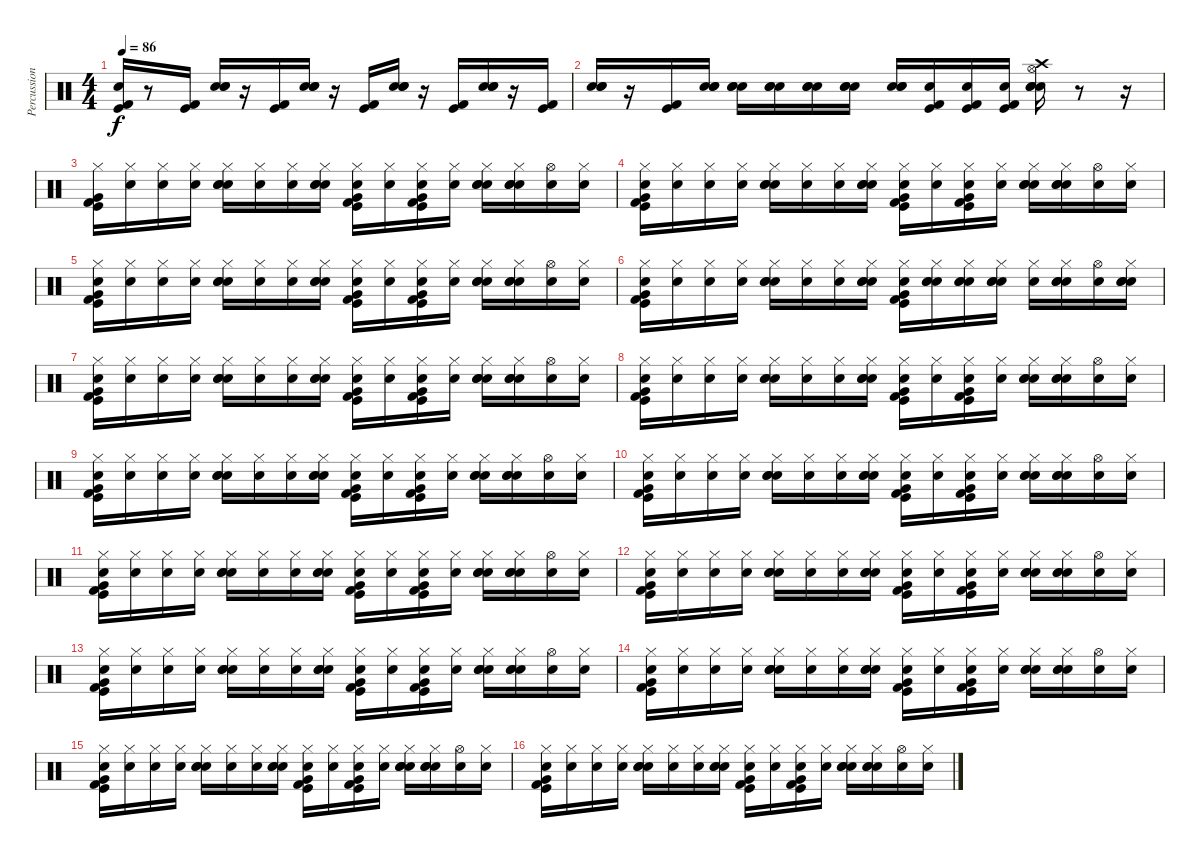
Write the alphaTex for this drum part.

\track ("Percussions (from MIDI)" "Percussion") {instrument percussion}
\staff {score}
\articulation defaults
\ts (4 4)
\tempo 86
\clef neutral
\ks c
("Snare (hit)" "Kick (hit) 2" "Kick (hit)").16{dy f} r.8 ("Kick (hit) 2" "Kick (hit)").16 ("Snare (hit)" "Snare (hit) 2" "Electric Snare (hit)").16 r.16 ("Kick (hit)" "Kick (hit) 2").16 ("Snare (hit)" "Electric Snare (hit)" "Snare (hit) 2").16 r.16 ("Kick (hit) 2" "Kick (hit)").16 ("Snare (hit)" "Snare (hit) 2" "Electric Snare (hit)").16 r.16 ("Kick (hit)" "Kick (hit) 2").16 ("Snare (hit)" "Electric Snare (hit)" "Snare (hit) 2").16 r.16 ("Kick (hit) 2" "Kick (hit)").16 |
("Snare (hit)" "Electric Snare (hit)" "Snare (hit) 2").16 r.16 ("Kick (hit) 2" "Kick (hit)").16 ("Snare (hit)" "Electric Snare (hit)" "Snare (hit) 2").16 ("Snare (hit)" "Electric Snare (hit)" "Snare (hit) 2").16 ("Snare (hit)" "Electric Snare (hit)" "Snare (hit) 2").16 ("Snare (hit)" "Electric Snare (hit)" "Snare (hit) 2").16 ("Snare (hit)" "Electric Snare (hit)" "Snare (hit) 2").16 ("Snare (hit)" "Electric Snare (hit)" "Snare (hit) 2").16 ("Snare (hit)" "Kick (hit) 2" "Kick (hit)").16 ("Snare (hit)" "Kick (hit) 2" "Kick (hit)").16 ("Snare (hit)" "Kick (hit) 2" "Kick (hit)").16 ("Snare (hit)" "Crash high (hit)" "Hi-Hat (open)" "Electric Snare (hit)" "Snare (hit) 2").16 r.8 r.16 |
("Kick (hit)" "Kick (hit) 2" "Very Low Tom (hit)" "Hi-Hat (closed)").16 ("Snare (hit)" "Hi-Hat (closed)").16 ("Snare (hit)" "Hi-Hat (closed)").16 ("Snare (hit)" "Hi-Hat (closed)").16 ("Snare (hit)" "Hi-Hat (closed)" "Electric Snare (hit)" "Snare (hit) 2").16 ("Snare (hit)" "Hi-Hat (closed)").16 ("Snare (hit)" "Hi-Hat (closed)").16 ("Snare (hit)" "Hi-Hat (closed)" "Electric Snare (hit)" "Snare (hit) 2").16 ("Snare (hit)" "Hi-Hat (closed)" "Very Low Tom (hit)" "Kick (hit) 2" "Kick (hit)").16 ("Snare (hit)" "Hi-Hat (closed)").16 ("Snare (hit)" "Hi-Hat (closed)" "Very Low Tom (hit)" "Kick (hit) 2" "Kick (hit)").16 ("Snare (hit)" "Hi-Hat (closed)").16 ("Snare (hit)" "Hi-Hat (closed)" "Electric Snare (hit)" "Snare (hit) 2").16 ("Snare (hit)" "Hi-Hat (closed)" "Snare (hit) 2" "Electric Snare (hit)").16 ("Snare (hit)" "Hi-Hat (open)").16 ("Snare (hit)" "Hi-Hat (closed)").16 |
("Snare (hit)" "Hi-Hat (closed)" "Very Low Tom (hit)" "Kick (hit) 2" "Kick (hit)").16 ("Snare (hit)" "Hi-Hat (closed)").16 ("Snare (hit)" "Hi-Hat (closed)").16 ("Snare (hit)" "Hi-Hat (closed)").16 ("Snare (hit)" "Hi-Hat (closed)" "Electric Snare (hit)" "Snare (hit) 2").16 ("Snare (hit)" "Hi-Hat (closed)").16 ("Snare (hit)" "Hi-Hat (closed)").16 ("Snare (hit)" "Hi-Hat (closed)" "Electric Snare (hit)" "Snare (hit) 2").16 ("Snare (hit)" "Hi-Hat (closed)" "Very Low Tom (hit)" "Kick (hit) 2" "Kick (hit)").16 ("Snare (hit)" "Hi-Hat (closed)").16 ("Snare (hit)" "Hi-Hat (closed)" "Very Low Tom (hit)" "Kick (hit) 2" "Kick (hit)").16 ("Snare (hit)" "Hi-Hat (closed)").16 ("Snare (hit)" "Hi-Hat (closed)" "Electric Snare (hit)" "Snare (hit) 2").16 ("Snare (hit)" "Hi-Hat (closed)" "Snare (hit) 2" "Electric Snare (hit)").16 ("Snare (hit)" "Hi-Hat (open)").16 ("Snare (hit)" "Hi-Hat (closed)").16 |
("Snare (hit)" "Hi-Hat (closed)" "Very Low Tom (hit)" "Kick (hit) 2" "Kick (hit)").16 ("Snare (hit)" "Hi-Hat (closed)").16 ("Snare (hit)" "Hi-Hat (closed)").16 ("Snare (hit)" "Hi-Hat (closed)").16 ("Snare (hit)" "Hi-Hat (closed)" "Electric Snare (hit)" "Snare (hit) 2").16 ("Snare (hit)" "Hi-Hat (closed)").16 ("Snare (hit)" "Hi-Hat (closed)").16 ("Snare (hit)" "Hi-Hat (closed)" "Electric Snare (hit)" "Snare (hit) 2").16 ("Snare (hit)" "Hi-Hat (closed)" "Very Low Tom (hit)" "Kick (hit) 2" "Kick (hit)").16 ("Snare (hit)" "Hi-Hat (closed)").16 ("Snare (hit)" "Hi-Hat (closed)" "Very Low Tom (hit)" "Kick (hit) 2" "Kick (hit)").16 ("Snare (hit)" "Hi-Hat (closed)").16 ("Snare (hit)" "Hi-Hat (closed)" "Electric Snare (hit)" "Snare (hit) 2").16 ("Snare (hit)" "Hi-Hat (closed)" "Snare (hit) 2" "Electric Snare (hit)").16 ("Snare (hit)" "Hi-Hat (open)").16 ("Snare (hit)" "Hi-Hat (closed)").16 |
("Snare (hit)" "Kick (hit)" "Kick (hit) 2" "Very Low Tom (hit)" "Hi-Hat (closed)").16 ("Snare (hit)" "Hi-Hat (closed)").16 ("Snare (hit)" "Hi-Hat (closed)").16 ("Snare (hit)" "Hi-Hat (closed)").16 ("Snare (hit)" "Hi-Hat (closed)" "Electric Snare (hit)" "Snare (hit) 2").16 ("Snare (hit)" "Hi-Hat (closed)").16 ("Snare (hit)" "Hi-Hat (closed)").16 ("Snare (hit)" "Hi-Hat (closed)" "Electric Snare (hit)" "Snare (hit) 2").16 ("Snare (hit)" "Kick (hit) 2" "Kick (hit)" "Very Low Tom (hit)" "Hi-Hat (closed)").16 ("Snare (hit)" "Electric Snare (hit)" "Snare (hit) 2" "Hi-Hat (closed)").16 ("Snare (hit)" "Electric Snare (hit)" "Snare (hit) 2" "Hi-Hat (closed)").16 ("Snare (hit)" "Electric Snare (hit)" "Snare (hit) 2" "Hi-Hat (closed)").16 ("Snare (hit)" "Hi-Hat (closed)").16 ("Snare (hit)" "Electric Snare (hit)" "Snare (hit) 2" "Hi-Hat (closed)").16 ("Snare (hit)" "Hi-Hat (open)").16 ("Snare (hit)" "Electric Snare (hit)" "Snare (hit) 2" "Hi-Hat (closed)").16 |
("Snare (hit)" "Kick (hit)" "Kick (hit) 2" "Very Low Tom (hit)" "Hi-Hat (closed)").16 ("Snare (hit)" "Hi-Hat (closed)").16 ("Snare (hit)" "Hi-Hat (closed)").16 ("Snare (hit)" "Hi-Hat (closed)").16 ("Snare (hit)" "Hi-Hat (closed)" "Electric Snare (hit)" "Snare (hit) 2").16 ("Snare (hit)" "Hi-Hat (closed)").16 ("Snare (hit)" "Hi-Hat (closed)").16 ("Snare (hit)" "Hi-Hat (closed)" "Electric Snare (hit)" "Snare (hit) 2").16 ("Snare (hit)" "Hi-Hat (closed)" "Very Low Tom (hit)" "Kick (hit) 2" "Kick (hit)").16 ("Snare (hit)" "Hi-Hat (closed)").16 ("Snare (hit)" "Hi-Hat (closed)" "Very Low Tom (hit)" "Kick (hit) 2" "Kick (hit)").16 ("Snare (hit)" "Hi-Hat (closed)").16 ("Snare (hit)" "Hi-Hat (closed)" "Electric Snare (hit)" "Snare (hit) 2").16 ("Snare (hit)" "Hi-Hat (closed)" "Snare (hit) 2" "Electric Snare (hit)").16 ("Snare (hit)" "Hi-Hat (open)").16 ("Snare (hit)" "Hi-Hat (closed)").16 |
("Snare (hit)" "Hi-Hat (closed)" "Very Low Tom (hit)" "Kick (hit) 2" "Kick (hit)").16 ("Snare (hit)" "Hi-Hat (closed)").16 ("Snare (hit)" "Hi-Hat (closed)").16 ("Snare (hit)" "Hi-Hat (closed)").16 ("Snare (hit)" "Hi-Hat (closed)" "Electric Snare (hit)" "Snare (hit) 2").16 ("Snare (hit)" "Hi-Hat (closed)").16 ("Snare (hit)" "Hi-Hat (closed)").16 ("Snare (hit)" "Hi-Hat (closed)" "Electric Snare (hit)" "Snare (hit) 2").16 ("Snare (hit)" "Hi-Hat (closed)" "Very Low Tom (hit)" "Kick (hit) 2" "Kick (hit)").16 ("Snare (hit)" "Hi-Hat (closed)").16 ("Snare (hit)" "Hi-Hat (closed)" "Very Low Tom (hit)" "Kick (hit) 2" "Kick (hit)").16 ("Snare (hit)" "Hi-Hat (closed)").16 ("Snare (hit)" "Hi-Hat (closed)" "Electric Snare (hit)" "Snare (hit) 2").16 ("Snare (hit)" "Hi-Hat (closed)" "Snare (hit) 2" "Electric Snare (hit)").16 ("Snare (hit)" "Hi-Hat (open)").16 ("Snare (hit)" "Hi-Hat (closed)").16 |
("Snare (hit)" "Hi-Hat (closed)" "Very Low Tom (hit)" "Kick (hit) 2" "Kick (hit)").16 ("Snare (hit)" "Hi-Hat (closed)").16 ("Snare (hit)" "Hi-Hat (closed)").16 ("Snare (hit)" "Hi-Hat (closed)").16 ("Snare (hit)" "Hi-Hat (closed)" "Electric Snare (hit)" "Snare (hit) 2").16 ("Snare (hit)" "Hi-Hat (closed)").16 ("Snare (hit)" "Hi-Hat (closed)").16 ("Snare (hit)" "Hi-Hat (closed)" "Electric Snare (hit)" "Snare (hit) 2").16 ("Snare (hit)" "Hi-Hat (closed)" "Very Low Tom (hit)" "Kick (hit) 2" "Kick (hit)").16 ("Snare (hit)" "Hi-Hat (closed)").16 ("Snare (hit)" "Hi-Hat (closed)" "Very Low Tom (hit)" "Kick (hit) 2" "Kick (hit)").16 ("Snare (hit)" "Hi-Hat (closed)").16 ("Snare (hit)" "Hi-Hat (closed)" "Electric Snare (hit)" "Snare (hit) 2").16 ("Snare (hit)" "Hi-Hat (closed)" "Snare (hit) 2" "Electric Snare (hit)").16 ("Snare (hit)" "Hi-Hat (open)").16 ("Snare (hit)" "Hi-Hat (closed)").16 |
("Snare (hit)" "Hi-Hat (closed)" "Very Low Tom (hit)" "Kick (hit) 2" "Kick (hit)").16 ("Snare (hit)" "Hi-Hat (closed)").16 ("Snare (hit)" "Hi-Hat (closed)").16 ("Snare (hit)" "Hi-Hat (closed)").16 ("Snare (hit)" "Hi-Hat (closed)" "Electric Snare (hit)" "Snare (hit) 2").16 ("Snare (hit)" "Hi-Hat (closed)").16 ("Snare (hit)" "Hi-Hat (closed)").16 ("Snare (hit)" "Hi-Hat (closed)" "Electric Snare (hit)" "Snare (hit) 2").16 ("Snare (hit)" "Hi-Hat (closed)" "Very Low Tom (hit)" "Kick (hit) 2" "Kick (hit)").16 ("Snare (hit)" "Hi-Hat (closed)").16 ("Snare (hit)" "Hi-Hat (closed)" "Very Low Tom (hit)" "Kick (hit) 2" "Kick (hit)").16 ("Snare (hit)" "Hi-Hat (closed)").16 ("Snare (hit)" "Hi-Hat (closed)" "Electric Snare (hit)" "Snare (hit) 2").16 ("Snare (hit)" "Hi-Hat (closed)" "Snare (hit) 2" "Electric Snare (hit)").16 ("Snare (hit)" "Hi-Hat (open)").16 ("Snare (hit)" "Hi-Hat (closed)").16 |
("Snare (hit)" "Kick (hit)" "Kick (hit) 2" "Very Low Tom (hit)" "Hi-Hat (closed)").16 ("Snare (hit)" "Hi-Hat (closed)").16 ("Snare (hit)" "Hi-Hat (closed)").16 ("Snare (hit)" "Hi-Hat (closed)").16 ("Snare (hit)" "Hi-Hat (closed)" "Electric Snare (hit)" "Snare (hit) 2").16 ("Snare (hit)" "Hi-Hat (closed)").16 ("Snare (hit)" "Hi-Hat (closed)").16 ("Snare (hit)" "Hi-Hat (closed)" "Electric Snare (hit)" "Snare (hit) 2").16 ("Snare (hit)" "Hi-Hat (closed)" "Very Low Tom (hit)" "Kick (hit) 2" "Kick (hit)").16 ("Snare (hit)" "Hi-Hat (closed)").16 ("Snare (hit)" "Hi-Hat (closed)" "Very Low Tom (hit)" "Kick (hit) 2" "Kick (hit)").16 ("Snare (hit)" "Hi-Hat (closed)").16 ("Snare (hit)" "Hi-Hat (closed)" "Electric Snare (hit)" "Snare (hit) 2").16 ("Snare (hit)" "Hi-Hat (closed)" "Snare (hit) 2" "Electric Snare (hit)").16 ("Snare (hit)" "Hi-Hat (open)").16 ("Snare (hit)" "Hi-Hat (closed)").16 |
("Snare (hit)" "Hi-Hat (closed)" "Very Low Tom (hit)" "Kick (hit) 2" "Kick (hit)").16 ("Snare (hit)" "Hi-Hat (closed)").16 ("Snare (hit)" "Hi-Hat (closed)").16 ("Snare (hit)" "Hi-Hat (closed)").16 ("Snare (hit)" "Hi-Hat (closed)" "Electric Snare (hit)" "Snare (hit) 2").16 ("Snare (hit)" "Hi-Hat (closed)").16 ("Snare (hit)" "Hi-Hat (closed)").16 ("Snare (hit)" "Hi-Hat (closed)" "Electric Snare (hit)" "Snare (hit) 2").16 ("Snare (hit)" "Hi-Hat (closed)" "Very Low Tom (hit)" "Kick (hit) 2" "Kick (hit)").16 ("Snare (hit)" "Hi-Hat (closed)").16 ("Snare (hit)" "Hi-Hat (closed)" "Very Low Tom (hit)" "Kick (hit) 2" "Kick (hit)").16 ("Snare (hit)" "Hi-Hat (closed)").16 ("Snare (hit)" "Hi-Hat (closed)" "Electric Snare (hit)" "Snare (hit) 2").16 ("Snare (hit)" "Hi-Hat (closed)" "Snare (hit) 2" "Electric Snare (hit)").16 ("Snare (hit)" "Hi-Hat (open)").16 ("Snare (hit)" "Hi-Hat (closed)").16 |
("Snare (hit)" "Kick (hit)" "Kick (hit) 2" "Very Low Tom (hit)" "Hi-Hat (closed)").16 ("Snare (hit)" "Hi-Hat (closed)").16 ("Snare (hit)" "Hi-Hat (closed)").16 ("Snare (hit)" "Hi-Hat (closed)").16 ("Snare (hit)" "Hi-Hat (closed)" "Electric Snare (hit)" "Snare (hit) 2").16 ("Snare (hit)" "Hi-Hat (closed)").16 ("Snare (hit)" "Hi-Hat (closed)").16 ("Snare (hit)" "Hi-Hat (closed)" "Electric Snare (hit)" "Snare (hit) 2").16 ("Snare (hit)" "Hi-Hat (closed)" "Very Low Tom (hit)" "Kick (hit) 2" "Kick (hit)").16 ("Snare (hit)" "Hi-Hat (closed)").16 ("Snare (hit)" "Hi-Hat (closed)" "Very Low Tom (hit)" "Kick (hit) 2" "Kick (hit)").16 ("Snare (hit)" "Hi-Hat (closed)").16 ("Snare (hit)" "Hi-Hat (closed)" "Electric Snare (hit)" "Snare (hit) 2").16 ("Snare (hit)" "Hi-Hat (closed)" "Snare (hit) 2" "Electric Snare (hit)").16 ("Snare (hit)" "Hi-Hat (open)").16 ("Snare (hit)" "Hi-Hat (closed)").16 |
("Snare (hit)" "Hi-Hat (closed)" "Very Low Tom (hit)" "Kick (hit) 2" "Kick (hit)").16 ("Snare (hit)" "Hi-Hat (closed)").16 ("Snare (hit)" "Hi-Hat (closed)").16 ("Snare (hit)" "Hi-Hat (closed)").16 ("Snare (hit)" "Hi-Hat (closed)" "Electric Snare (hit)" "Snare (hit) 2").16 ("Snare (hit)" "Hi-Hat (closed)").16 ("Snare (hit)" "Hi-Hat (closed)").16 ("Snare (hit)" "Hi-Hat (closed)" "Electric Snare (hit)" "Snare (hit) 2").16 ("Snare (hit)" "Hi-Hat (closed)" "Very Low Tom (hit)" "Kick (hit) 2" "Kick (hit)").16 ("Snare (hit)" "Hi-Hat (closed)").16 ("Snare (hit)" "Hi-Hat (closed)" "Very Low Tom (hit)" "Kick (hit) 2" "Kick (hit)").16 ("Snare (hit)" "Hi-Hat (closed)").16 ("Snare (hit)" "Hi-Hat (closed)" "Electric Snare (hit)" "Snare (hit) 2").16 ("Snare (hit)" "Hi-Hat (closed)" "Snare (hit) 2" "Electric Snare (hit)").16 ("Snare (hit)" "Hi-Hat (open)").16 ("Snare (hit)" "Hi-Hat (closed)").16 |
("Snare (hit)" "Kick (hit)" "Kick (hit) 2" "Very Low Tom (hit)" "Hi-Hat (closed)").16 ("Snare (hit)" "Hi-Hat (closed)").16 ("Snare (hit)" "Hi-Hat (closed)").16 ("Snare (hit)" "Hi-Hat (closed)").16 ("Snare (hit)" "Hi-Hat (closed)" "Electric Snare (hit)" "Snare (hit) 2").16 ("Snare (hit)" "Hi-Hat (closed)").16 ("Snare (hit)" "Hi-Hat (closed)").16 ("Snare (hit)" "Hi-Hat (closed)" "Electric Snare (hit)" "Snare (hit) 2").16 ("Snare (hit)" "Hi-Hat (closed)" "Very Low Tom (hit)" "Kick (hit) 2" "Kick (hit)").16 ("Snare (hit)" "Hi-Hat (closed)").16 ("Snare (hit)" "Hi-Hat (closed)" "Very Low Tom (hit)" "Kick (hit) 2" "Kick (hit)").16 ("Snare (hit)" "Hi-Hat (closed)").16 ("Snare (hit)" "Hi-Hat (closed)" "Electric Snare (hit)" "Snare (hit) 2").16 ("Snare (hit)" "Hi-Hat (closed)" "Snare (hit) 2" "Electric Snare (hit)").16 ("Snare (hit)" "Hi-Hat (open)").16 ("Snare (hit)" "Hi-Hat (closed)").16 |
("Snare (hit)" "Hi-Hat (closed)" "Very Low Tom (hit)" "Kick (hit) 2" "Kick (hit)").16 ("Snare (hit)" "Hi-Hat (closed)").16 ("Snare (hit)" "Hi-Hat (closed)").16 ("Snare (hit)" "Hi-Hat (closed)").16 ("Snare (hit)" "Hi-Hat (closed)" "Electric Snare (hit)" "Snare (hit) 2").16 ("Snare (hit)" "Hi-Hat (closed)").16 ("Snare (hit)" "Hi-Hat (closed)").16 ("Snare (hit)" "Hi-Hat (closed)" "Electric Snare (hit)" "Snare (hit) 2").16 ("Snare (hit)" "Hi-Hat (closed)" "Very Low Tom (hit)" "Kick (hit) 2" "Kick (hit)").16 ("Snare (hit)" "Hi-Hat (closed)").16 ("Snare (hit)" "Hi-Hat (closed)" "Very Low Tom (hit)" "Kick (hit) 2" "Kick (hit)").16 ("Snare (hit)" "Hi-Hat (closed)").16 ("Snare (hit)" "Hi-Hat (closed)" "Electric Snare (hit)" "Snare (hit) 2").16 ("Snare (hit)" "Hi-Hat (closed)" "Snare (hit) 2" "Electric Snare (hit)").16 ("Snare (hit)" "Hi-Hat (open)").16 ("Snare (hit)" "Hi-Hat (closed)").16
